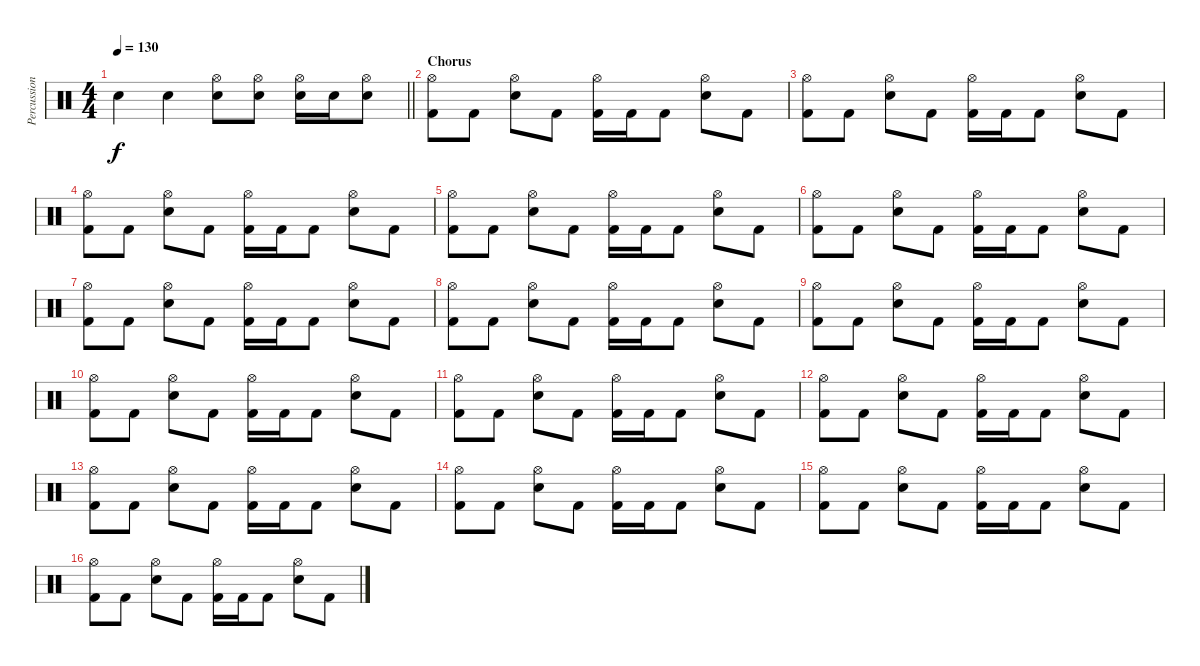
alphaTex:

\track ("Percussion" "Percussion") {instrument percussion}
\staff {score}
\articulation defaults
\ts (4 4)
\tempo 130
\clef neutral
\barLineRight lightlight
\ks c "Electric Snare (hit)".4{dy f} "Electric Snare (hit)".4
("Hi-Hat (open)" "Electric Snare (hit)").8 ("Hi-Hat (open)" "Electric Snare (hit)").8 ("Hi-Hat (open)" "Electric Snare (hit)").16 "Electric Snare (hit)".16 ("Hi-Hat (open)" "Electric Snare (hit)").8 |
\section ("" "Chorus")
("Hi-Hat (open)" "Kick (hit) 2").8 "Kick (hit) 2".8 ("Hi-Hat (open)" "Electric Snare (hit)").8 "Kick (hit) 2".8 ("Hi-Hat (open)" "Kick (hit) 2").16 "Kick (hit) 2".16 "Kick (hit) 2".8 ("Hi-Hat (open)" "Electric Snare (hit)").8 "Kick (hit) 2".8 |
("Hi-Hat (open)" "Kick (hit) 2").8 "Kick (hit) 2".8 ("Hi-Hat (open)" "Electric Snare (hit)").8 "Kick (hit) 2".8 ("Hi-Hat (open)" "Kick (hit) 2").16 "Kick (hit) 2".16 "Kick (hit) 2".8 ("Hi-Hat (open)" "Electric Snare (hit)").8 "Kick (hit) 2".8 |
("Hi-Hat (open)" "Kick (hit) 2").8 "Kick (hit) 2".8 ("Hi-Hat (open)" "Electric Snare (hit)").8 "Kick (hit) 2".8 ("Hi-Hat (open)" "Kick (hit) 2").16 "Kick (hit) 2".16 "Kick (hit) 2".8 ("Hi-Hat (open)" "Electric Snare (hit)").8 "Kick (hit) 2".8 |
("Hi-Hat (open)" "Kick (hit) 2").8 "Kick (hit) 2".8 ("Hi-Hat (open)" "Electric Snare (hit)").8 "Kick (hit) 2".8 ("Hi-Hat (open)" "Kick (hit) 2").16 "Kick (hit) 2".16 "Kick (hit) 2".8 ("Hi-Hat (open)" "Electric Snare (hit)").8 "Kick (hit) 2".8 |
("Hi-Hat (open)" "Kick (hit) 2").8 "Kick (hit) 2".8 ("Hi-Hat (open)" "Electric Snare (hit)").8 "Kick (hit) 2".8 ("Hi-Hat (open)" "Kick (hit) 2").16 "Kick (hit) 2".16 "Kick (hit) 2".8 ("Hi-Hat (open)" "Electric Snare (hit)").8 "Kick (hit) 2".8 |
("Hi-Hat (open)" "Kick (hit) 2").8 "Kick (hit) 2".8 ("Hi-Hat (open)" "Electric Snare (hit)").8 "Kick (hit) 2".8 ("Hi-Hat (open)" "Kick (hit) 2").16 "Kick (hit) 2".16 "Kick (hit) 2".8 ("Hi-Hat (open)" "Electric Snare (hit)").8 "Kick (hit) 2".8 |
("Hi-Hat (open)" "Kick (hit) 2").8 "Kick (hit) 2".8 ("Hi-Hat (open)" "Electric Snare (hit)").8 "Kick (hit) 2".8 ("Hi-Hat (open)" "Kick (hit) 2").16 "Kick (hit) 2".16 "Kick (hit) 2".8 ("Hi-Hat (open)" "Electric Snare (hit)").8 "Kick (hit) 2".8 |
("Hi-Hat (open)" "Kick (hit) 2").8 "Kick (hit) 2".8 ("Hi-Hat (open)" "Electric Snare (hit)").8 "Kick (hit) 2".8 ("Hi-Hat (open)" "Kick (hit) 2").16 "Kick (hit) 2".16 "Kick (hit) 2".8 ("Hi-Hat (open)" "Electric Snare (hit)").8 "Kick (hit) 2".8 |
("Hi-Hat (open)" "Kick (hit) 2").8 "Kick (hit) 2".8 ("Hi-Hat (open)" "Electric Snare (hit)").8 "Kick (hit) 2".8 ("Hi-Hat (open)" "Kick (hit) 2").16 "Kick (hit) 2".16 "Kick (hit) 2".8 ("Hi-Hat (open)" "Electric Snare (hit)").8 "Kick (hit) 2".8 |
("Hi-Hat (open)" "Kick (hit) 2").8 "Kick (hit) 2".8 ("Hi-Hat (open)" "Electric Snare (hit)").8 "Kick (hit) 2".8 ("Hi-Hat (open)" "Kick (hit) 2").16 "Kick (hit) 2".16 "Kick (hit) 2".8 ("Hi-Hat (open)" "Electric Snare (hit)").8 "Kick (hit) 2".8 |
("Hi-Hat (open)" "Kick (hit) 2").8 "Kick (hit) 2".8 ("Hi-Hat (open)" "Electric Snare (hit)").8 "Kick (hit) 2".8 ("Hi-Hat (open)" "Kick (hit) 2").16 "Kick (hit) 2".16 "Kick (hit) 2".8 ("Hi-Hat (open)" "Electric Snare (hit)").8 "Kick (hit) 2".8 |
("Hi-Hat (open)" "Kick (hit) 2").8 "Kick (hit) 2".8 ("Hi-Hat (open)" "Electric Snare (hit)").8 "Kick (hit) 2".8 ("Hi-Hat (open)" "Kick (hit) 2").16 "Kick (hit) 2".16 "Kick (hit) 2".8 ("Hi-Hat (open)" "Electric Snare (hit)").8 "Kick (hit) 2".8 |
("Hi-Hat (open)" "Kick (hit) 2").8 "Kick (hit) 2".8 ("Hi-Hat (open)" "Electric Snare (hit)").8 "Kick (hit) 2".8 ("Hi-Hat (open)" "Kick (hit) 2").16 "Kick (hit) 2".16 "Kick (hit) 2".8 ("Hi-Hat (open)" "Electric Snare (hit)").8 "Kick (hit) 2".8 |
("Hi-Hat (open)" "Kick (hit) 2").8 "Kick (hit) 2".8 ("Hi-Hat (open)" "Electric Snare (hit)").8 "Kick (hit) 2".8 ("Hi-Hat (open)" "Kick (hit) 2").16 "Kick (hit) 2".16 "Kick (hit) 2".8 ("Hi-Hat (open)" "Electric Snare (hit)").8 "Kick (hit) 2".8 |
("Hi-Hat (open)" "Kick (hit) 2").8 "Kick (hit) 2".8 ("Hi-Hat (open)" "Electric Snare (hit)").8 "Kick (hit) 2".8 ("Hi-Hat (open)" "Kick (hit) 2").16 "Kick (hit) 2".16 "Kick (hit) 2".8 ("Hi-Hat (open)" "Electric Snare (hit)").8 "Kick (hit) 2".8
